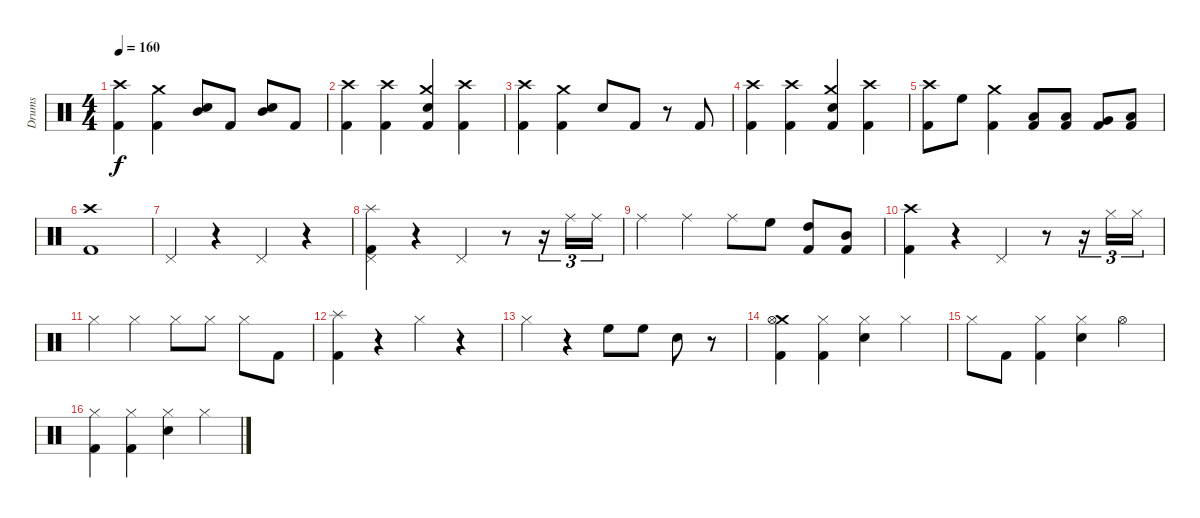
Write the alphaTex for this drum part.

\track ("Drums" "Drums") {instrument percussion}
\staff {score}
\articulation defaults
\ts (4 4)
\tempo 160
\clef neutral
\ks c
("Crash high (hit)" "Kick (hit) 2").4{dy f} ("Crash medium (hit)" "Kick (hit) 2").4 ("Mid Tom (hit)" "Snare (hit) 2").8 "Kick (hit) 2".8 ("Mid Tom (hit)" "Snare (hit) 2").8 "Kick (hit) 2".8 |
("Crash high (hit)" "Kick (hit) 2").4 ("Crash high (hit)" "Kick (hit) 2").4 ("Crash medium (hit)" "Snare (hit) 2" "Kick (hit) 2").4 ("Crash high (hit)" "Kick (hit) 2").4 |
("Crash high (hit)" "Kick (hit) 2").4 ("Crash medium (hit)" "Kick (hit) 2").4 "Snare (hit) 2".8 "Kick (hit) 2".8 r.8 "Kick (hit) 2".8 |
("Crash high (hit)" "Kick (hit) 2").4 ("Crash high (hit)" "Kick (hit) 2").4 ("Crash medium (hit)" "Snare (hit) 2" "Kick (hit) 2").4 ("Crash high (hit)" "Kick (hit) 2").4 |
("Crash high (hit)" "Kick (hit) 2").8 "High Floor Tom (hit)".8 ("Crash medium (hit)" "Kick (hit) 2").4 ("Low Tom (hit)" "Kick (hit) 2").8 ("Low Tom (hit)" "Kick (hit) 2").8 ("Very Low Tom (hit)" "Kick (hit) 2").8 ("Low Floor Tom (hit)" "Kick (hit) 2").8 |
("Crash high (hit)" "Kick (hit) 2").1 |
"Pedal Hi-Hat (hit)".4 r.4 "Pedal Hi-Hat (hit)".4 r.4 |
("Splash (hit)" "Pedal Hi-Hat (hit)" "Kick (hit) 2").4 r.4 "Pedal Hi-Hat (hit)".4 r.8 r.16{tu (3 2)} "Ride (middle)".16{tu (3 2)} "Ride (middle)".16{tu (3 2)} |
"Ride (middle)".4 "Ride (middle)".4 "Ride (middle)".8 "High Floor Tom (hit)".8 ("High Tom (hit)" "Kick (hit) 2").8 ("Mid Tom (hit)" "Kick (hit) 2").8 |
("Crash high (hit)" "Kick (hit) 2").4 r.4 "Pedal Hi-Hat (hit)".4 r.8 r.16{tu (3 2)} "Hi-Hat (closed)".16{tu (3 2)} "Hi-Hat (closed)".16{tu (3 2)} |
"Hi-Hat (closed)".4 "Hi-Hat (closed)".4 "Hi-Hat (closed)".8 "Hi-Hat (closed)".8 "Hi-Hat (closed)".8 "Kick (hit) 2".8 |
("Splash (hit)" "Kick (hit) 2").4 r.4 "Hi-Hat (closed)".4 r.4 |
"Hi-Hat (closed)".4 r.4 "High Floor Tom (hit)".8 "High Floor Tom (hit)".8 "Snare (hit) 2".8 r.8 |
("Crash medium (hit)" "Hi-Hat (open)" "Kick (hit) 2").4 ("Hi-Hat (closed)" "Kick (hit) 2").4 ("Snare (hit) 2" "Hi-Hat (closed)").4 "Hi-Hat (closed)".4 |
"Hi-Hat (closed)".8 "Kick (hit) 2".8 ("Hi-Hat (closed)" "Kick (hit) 2").4 ("Snare (hit) 2" "Hi-Hat (closed)").4 "Hi-Hat (open)".4 |
("Hi-Hat (closed)" "Kick (hit) 2").4 ("Hi-Hat (closed)" "Kick (hit) 2").4 ("Snare (hit) 2" "Hi-Hat (closed)").4 "Hi-Hat (closed)".4
